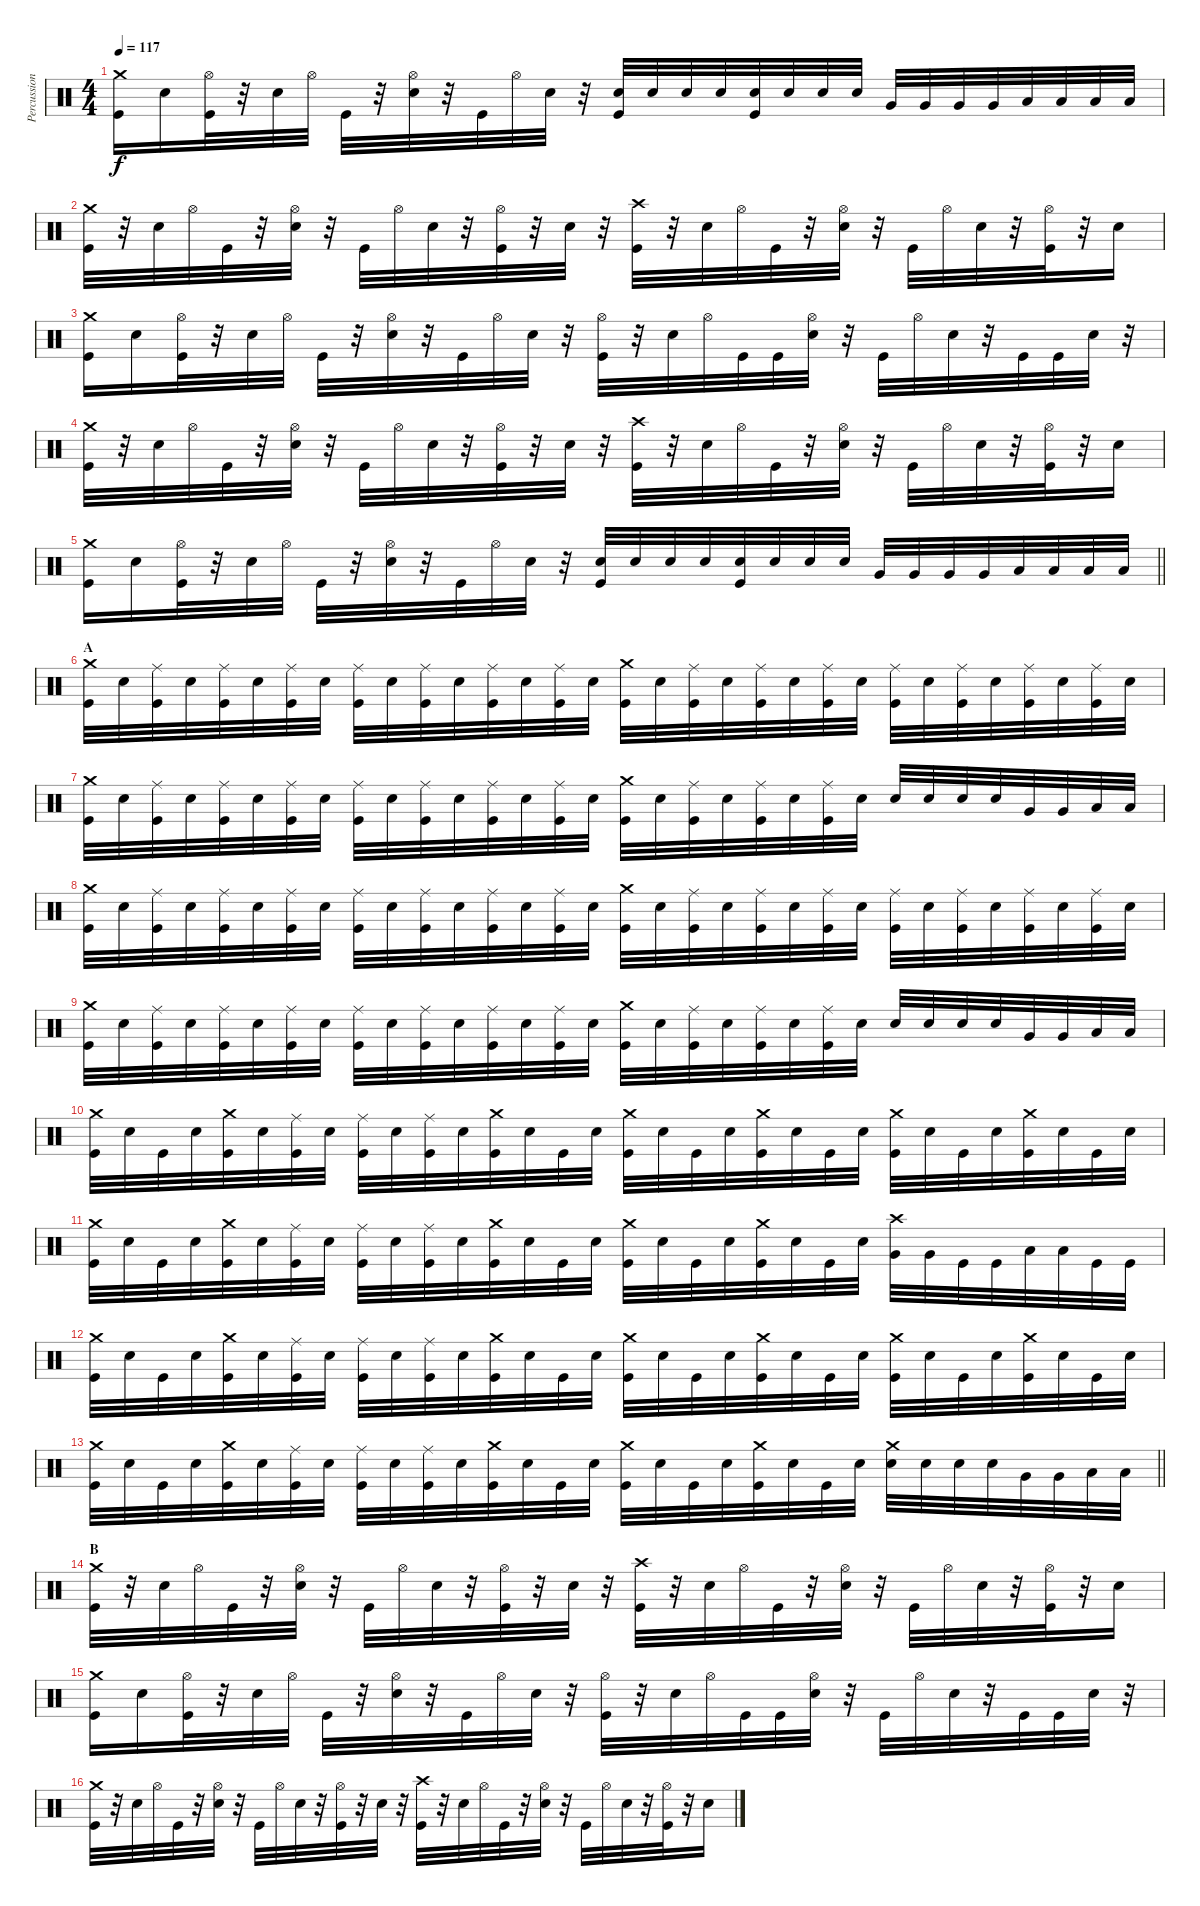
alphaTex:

\track ("Percussion" "Percussion") {instrument percussion}
\staff {score}
\articulation defaults
\ts (4 4)
\tempo 117
\clef neutral
\ks c
("Kick (hit)" "Crash medium (hit)").16{dy f} "Snare (hit) 2".16 ("Kick (hit)" "Hi-Hat (open)").32 r.32 "Snare (hit) 2".32 "Hi-Hat (open)".32 "Kick (hit)".32 r.32 ("Snare (hit) 2" "Hi-Hat (open)").32 r.32 "Kick (hit)".32 "Hi-Hat (open)".32 "Snare (hit) 2".32 r.32 ("Kick (hit)" "Snare (hit) 2").32 "Snare (hit) 2".32 "Snare (hit) 2".32 "Snare (hit) 2".32 ("Kick (hit)" "Snare (hit) 2").32 "Snare (hit) 2".32 "Snare (hit) 2".32 "Snare (hit) 2".32 "Very Low Tom (hit)".32 "Very Low Tom (hit)".32 "Very Low Tom (hit)".32 "Very Low Tom (hit)".32 "Low Floor Tom (hit)".32 "Low Floor Tom (hit)".32 "Low Floor Tom (hit)".32 "Low Floor Tom (hit)".32 |
("Kick (hit)" "Crash medium (hit)").32 r.32 "Snare (hit) 2".32 "Hi-Hat (open)".32 "Kick (hit)".32 r.32 ("Snare (hit) 2" "Hi-Hat (open)").32 r.32 "Kick (hit)".32 "Hi-Hat (open)".32 "Snare (hit) 2".32 r.32 ("Kick (hit)" "Hi-Hat (open)").32 r.32 "Snare (hit) 2".32 r.32 ("Kick (hit)" "Crash high (hit)").32 r.32 "Snare (hit) 2".32 "Hi-Hat (open)".32 "Kick (hit)".32 r.32 ("Snare (hit) 2" "Hi-Hat (open)").32 r.32 "Kick (hit)".32 "Hi-Hat (open)".32 "Snare (hit) 2".32 r.32 ("Kick (hit)" "Hi-Hat (open)").32 r.32 "Snare (hit) 2".16 |
("Kick (hit)" "Crash medium (hit)").16 "Snare (hit) 2".16 ("Kick (hit)" "Hi-Hat (open)").32 r.32 "Snare (hit) 2".32 "Hi-Hat (open)".32 "Kick (hit)".32 r.32 ("Snare (hit) 2" "Hi-Hat (open)").32 r.32 "Kick (hit)".32 "Hi-Hat (open)".32 "Snare (hit) 2".32 r.32 ("Kick (hit)" "Hi-Hat (open)").32 r.32 "Snare (hit) 2".32 "Hi-Hat (open)".32 "Kick (hit)".32 "Kick (hit)".32 ("Snare (hit) 2" "Hi-Hat (open)").32 r.32 "Kick (hit)".32 "Hi-Hat (open)".32 "Snare (hit) 2".32 r.32 "Kick (hit)".32 "Kick (hit)".32 "Snare (hit) 2".32 r.32 |
("Kick (hit)" "Crash medium (hit)").32 r.32 "Snare (hit) 2".32 "Hi-Hat (open)".32 "Kick (hit)".32 r.32 ("Snare (hit) 2" "Hi-Hat (open)").32 r.32 "Kick (hit)".32 "Hi-Hat (open)".32 "Snare (hit) 2".32 r.32 ("Kick (hit)" "Hi-Hat (open)").32 r.32 "Snare (hit) 2".32 r.32 ("Kick (hit)" "Crash high (hit)").32 r.32 "Snare (hit) 2".32 "Hi-Hat (open)".32 "Kick (hit)".32 r.32 ("Snare (hit) 2" "Hi-Hat (open)").32 r.32 "Kick (hit)".32 "Hi-Hat (open)".32 "Snare (hit) 2".32 r.32 ("Kick (hit)" "Hi-Hat (open)").32 r.32 "Snare (hit) 2".16 |
\barLineRight lightlight
("Kick (hit)" "Crash medium (hit)").16 "Snare (hit) 2".16 ("Kick (hit)" "Hi-Hat (open)").32 r.32 "Snare (hit) 2".32 "Hi-Hat (open)".32 "Kick (hit)".32 r.32 ("Snare (hit) 2" "Hi-Hat (open)").32 r.32 "Kick (hit)".32 "Hi-Hat (open)".32 "Snare (hit) 2".32 r.32 ("Kick (hit)" "Snare (hit) 2").32 "Snare (hit) 2".32 "Snare (hit) 2".32 "Snare (hit) 2".32 ("Kick (hit)" "Snare (hit) 2").32 "Snare (hit) 2".32 "Snare (hit) 2".32 "Snare (hit) 2".32 "Very Low Tom (hit)".32 "Very Low Tom (hit)".32 "Very Low Tom (hit)".32 "Very Low Tom (hit)".32 "Low Floor Tom (hit)".32 "Low Floor Tom (hit)".32 "Low Floor Tom (hit)".32 "Low Floor Tom (hit)".32 |
\section ("" "A")
("Kick (hit)" "Crash medium (hit)").32 "Snare (hit) 2".32 ("Kick (hit)" "Ride (middle)").32 "Snare (hit) 2".32 ("Kick (hit)" "Ride (middle)").32 "Snare (hit) 2".32 ("Kick (hit)" "Ride (middle)").32 "Snare (hit) 2".32 ("Kick (hit)" "Ride (middle)").32 "Snare (hit) 2".32 ("Kick (hit)" "Ride (middle)").32 "Snare (hit) 2".32 ("Kick (hit)" "Ride (middle)").32 "Snare (hit) 2".32 ("Kick (hit)" "Ride (middle)").32 "Snare (hit) 2".32 ("Kick (hit)" "Crash medium (hit)").32 "Snare (hit) 2".32 ("Kick (hit)" "Ride (middle)").32 "Snare (hit) 2".32 ("Kick (hit)" "Ride (middle)").32 "Snare (hit) 2".32 ("Kick (hit)" "Ride (middle)").32 "Snare (hit) 2".32 ("Kick (hit)" "Ride (middle)").32 "Snare (hit) 2".32 ("Kick (hit)" "Ride (middle)").32 "Snare (hit) 2".32 ("Kick (hit)" "Ride (middle)").32 "Snare (hit) 2".32 ("Kick (hit)" "Ride (middle)").32 "Snare (hit) 2".32 |
("Kick (hit)" "Crash medium (hit)").32 "Snare (hit) 2".32 ("Kick (hit)" "Ride (middle)").32 "Snare (hit) 2".32 ("Kick (hit)" "Ride (middle)").32 "Snare (hit) 2".32 ("Kick (hit)" "Ride (middle)").32 "Snare (hit) 2".32 ("Kick (hit)" "Ride (middle)").32 "Snare (hit) 2".32 ("Kick (hit)" "Ride (middle)").32 "Snare (hit) 2".32 ("Kick (hit)" "Ride (middle)").32 "Snare (hit) 2".32 ("Kick (hit)" "Ride (middle)").32 "Snare (hit) 2".32 ("Kick (hit)" "Crash medium (hit)").32 "Snare (hit) 2".32 ("Kick (hit)" "Ride (middle)").32 "Snare (hit) 2".32 ("Kick (hit)" "Ride (middle)").32 "Snare (hit) 2".32 ("Kick (hit)" "Ride (middle)").32 "Snare (hit) 2".32 "Snare (hit) 2".32 "Snare (hit) 2".32 "Snare (hit) 2".32 "Snare (hit) 2".32 "Very Low Tom (hit)".32 "Very Low Tom (hit)".32 "Low Floor Tom (hit)".32 "Low Floor Tom (hit)".32 |
("Kick (hit)" "Crash medium (hit)").32 "Snare (hit) 2".32 ("Kick (hit)" "Ride (middle)").32 "Snare (hit) 2".32 ("Kick (hit)" "Ride (middle)").32 "Snare (hit) 2".32 ("Kick (hit)" "Ride (middle)").32 "Snare (hit) 2".32 ("Kick (hit)" "Ride (middle)").32 "Snare (hit) 2".32 ("Kick (hit)" "Ride (middle)").32 "Snare (hit) 2".32 ("Kick (hit)" "Ride (middle)").32 "Snare (hit) 2".32 ("Kick (hit)" "Ride (middle)").32 "Snare (hit) 2".32 ("Kick (hit)" "Crash medium (hit)").32 "Snare (hit) 2".32 ("Kick (hit)" "Ride (middle)").32 "Snare (hit) 2".32 ("Kick (hit)" "Ride (middle)").32 "Snare (hit) 2".32 ("Kick (hit)" "Ride (middle)").32 "Snare (hit) 2".32 ("Kick (hit)" "Ride (middle)").32 "Snare (hit) 2".32 ("Kick (hit)" "Ride (middle)").32 "Snare (hit) 2".32 ("Kick (hit)" "Ride (middle)").32 "Snare (hit) 2".32 ("Kick (hit)" "Ride (middle)").32 "Snare (hit) 2".32 |
("Kick (hit)" "Crash medium (hit)").32 "Snare (hit) 2".32 ("Kick (hit)" "Ride (middle)").32 "Snare (hit) 2".32 ("Kick (hit)" "Ride (middle)").32 "Snare (hit) 2".32 ("Kick (hit)" "Ride (middle)").32 "Snare (hit) 2".32 ("Kick (hit)" "Ride (middle)").32 "Snare (hit) 2".32 ("Kick (hit)" "Ride (middle)").32 "Snare (hit) 2".32 ("Kick (hit)" "Ride (middle)").32 "Snare (hit) 2".32 ("Kick (hit)" "Ride (middle)").32 "Snare (hit) 2".32 ("Kick (hit)" "Crash medium (hit)").32 "Snare (hit) 2".32 ("Kick (hit)" "Ride (middle)").32 "Snare (hit) 2".32 ("Kick (hit)" "Ride (middle)").32 "Snare (hit) 2".32 ("Kick (hit)" "Ride (middle)").32 "Snare (hit) 2".32 "Snare (hit) 2".32 "Snare (hit) 2".32 "Snare (hit) 2".32 "Snare (hit) 2".32 "Very Low Tom (hit)".32 "Very Low Tom (hit)".32 "Low Floor Tom (hit)".32 "Low Floor Tom (hit)".32 |
("Kick (hit)" "Crash medium (hit)").32 "Snare (hit) 2".32 "Kick (hit)".32 "Snare (hit) 2".32 ("Kick (hit)" "Crash medium (hit)").32 "Snare (hit) 2".32 ("Kick (hit)" "Ride (middle)").32 "Snare (hit) 2".32 ("Kick (hit)" "Ride (middle)").32 "Snare (hit) 2".32 ("Kick (hit)" "Ride (middle)").32 "Snare (hit) 2".32 ("Kick (hit)" "Crash medium (hit)").32 "Snare (hit) 2".32 "Kick (hit)".32 "Snare (hit) 2".32 ("Kick (hit)" "Crash medium (hit)").32 "Snare (hit) 2".32 "Kick (hit)".32 "Snare (hit) 2".32 ("Kick (hit)" "Crash medium (hit)").32 "Snare (hit) 2".32 "Kick (hit)".32 "Snare (hit) 2".32 ("Kick (hit)" "Crash medium (hit)").32 "Snare (hit) 2".32 "Kick (hit)".32 "Snare (hit) 2".32 ("Kick (hit)" "Crash medium (hit)").32 "Snare (hit) 2".32 "Kick (hit)".32 "Snare (hit) 2".32 |
("Kick (hit)" "Crash medium (hit)").32 "Snare (hit) 2".32 "Kick (hit)".32 "Snare (hit) 2".32 ("Kick (hit)" "Crash medium (hit)").32 "Snare (hit) 2".32 ("Kick (hit)" "Ride (middle)").32 "Snare (hit) 2".32 ("Kick (hit)" "Ride (middle)").32 "Snare (hit) 2".32 ("Kick (hit)" "Ride (middle)").32 "Snare (hit) 2".32 ("Kick (hit)" "Crash medium (hit)").32 "Snare (hit) 2".32 "Kick (hit)".32 "Snare (hit) 2".32 ("Kick (hit)" "Crash medium (hit)").32 "Snare (hit) 2".32 "Kick (hit)".32 "Snare (hit) 2".32 ("Kick (hit)" "Crash medium (hit)").32 "Snare (hit) 2".32 "Kick (hit)".32 "Snare (hit) 2".32 ("Very Low Tom (hit)" "Crash high (hit)").32 "Very Low Tom (hit)".32 "Kick (hit)".32 "Kick (hit)".32 "Low Floor Tom (hit)".32 "Low Floor Tom (hit)".32 "Kick (hit)".32 "Kick (hit)".32 |
("Kick (hit)" "Crash medium (hit)").32 "Snare (hit) 2".32 "Kick (hit)".32 "Snare (hit) 2".32 ("Kick (hit)" "Crash medium (hit)").32 "Snare (hit) 2".32 ("Kick (hit)" "Ride (middle)").32 "Snare (hit) 2".32 ("Kick (hit)" "Ride (middle)").32 "Snare (hit) 2".32 ("Kick (hit)" "Ride (middle)").32 "Snare (hit) 2".32 ("Kick (hit)" "Crash medium (hit)").32 "Snare (hit) 2".32 "Kick (hit)".32 "Snare (hit) 2".32 ("Kick (hit)" "Crash medium (hit)").32 "Snare (hit) 2".32 "Kick (hit)".32 "Snare (hit) 2".32 ("Kick (hit)" "Crash medium (hit)").32 "Snare (hit) 2".32 "Kick (hit)".32 "Snare (hit) 2".32 ("Kick (hit)" "Crash medium (hit)").32 "Snare (hit) 2".32 "Kick (hit)".32 "Snare (hit) 2".32 ("Kick (hit)" "Crash medium (hit)").32 "Snare (hit) 2".32 "Kick (hit)".32 "Snare (hit) 2".32 |
\barLineRight lightlight
("Kick (hit)" "Crash medium (hit)").32 "Snare (hit) 2".32 "Kick (hit)".32 "Snare (hit) 2".32 ("Kick (hit)" "Crash medium (hit)").32 "Snare (hit) 2".32 ("Kick (hit)" "Ride (middle)").32 "Snare (hit) 2".32 ("Kick (hit)" "Ride (middle)").32 "Snare (hit) 2".32 ("Kick (hit)" "Ride (middle)").32 "Snare (hit) 2".32 ("Kick (hit)" "Crash medium (hit)").32 "Snare (hit) 2".32 "Kick (hit)".32 "Snare (hit) 2".32 ("Kick (hit)" "Crash medium (hit)").32 "Snare (hit) 2".32 "Kick (hit)".32 "Snare (hit) 2".32 ("Kick (hit)" "Crash medium (hit)").32 "Snare (hit) 2".32 "Kick (hit)".32 "Snare (hit) 2".32 ("Snare (hit) 2" "Crash medium (hit)").32 "Snare (hit) 2".32 "Snare (hit) 2".32 "Snare (hit) 2".32 "Very Low Tom (hit)".32 "Very Low Tom (hit)".32 "Low Floor Tom (hit)".32 "Low Floor Tom (hit)".32 |
\section ("" "B")
("Kick (hit)" "Crash medium (hit)").32 r.32 "Snare (hit) 2".32 "Hi-Hat (open)".32 "Kick (hit)".32 r.32 ("Snare (hit) 2" "Hi-Hat (open)").32 r.32 "Kick (hit)".32 "Hi-Hat (open)".32 "Snare (hit) 2".32 r.32 ("Kick (hit)" "Hi-Hat (open)").32 r.32 "Snare (hit) 2".32 r.32 ("Kick (hit)" "Crash high (hit)").32 r.32 "Snare (hit) 2".32 "Hi-Hat (open)".32 "Kick (hit)".32 r.32 ("Snare (hit) 2" "Hi-Hat (open)").32 r.32 "Kick (hit)".32 "Hi-Hat (open)".32 "Snare (hit) 2".32 r.32 ("Kick (hit)" "Hi-Hat (open)").32 r.32 "Snare (hit) 2".16 |
("Kick (hit)" "Crash medium (hit)").16 "Snare (hit) 2".16 ("Kick (hit)" "Hi-Hat (open)").32 r.32 "Snare (hit) 2".32 "Hi-Hat (open)".32 "Kick (hit)".32 r.32 ("Snare (hit) 2" "Hi-Hat (open)").32 r.32 "Kick (hit)".32 "Hi-Hat (open)".32 "Snare (hit) 2".32 r.32 ("Kick (hit)" "Hi-Hat (open)").32 r.32 "Snare (hit) 2".32 "Hi-Hat (open)".32 "Kick (hit)".32 "Kick (hit)".32 ("Snare (hit) 2" "Hi-Hat (open)").32 r.32 "Kick (hit)".32 "Hi-Hat (open)".32 "Snare (hit) 2".32 r.32 "Kick (hit)".32 "Kick (hit)".32 "Snare (hit) 2".32 r.32 |
("Kick (hit)" "Crash medium (hit)").32 r.32 "Snare (hit) 2".32 "Hi-Hat (open)".32 "Kick (hit)".32 r.32 ("Snare (hit) 2" "Hi-Hat (open)").32 r.32 "Kick (hit)".32 "Hi-Hat (open)".32 "Snare (hit) 2".32 r.32 ("Kick (hit)" "Hi-Hat (open)").32 r.32 "Snare (hit) 2".32 r.32 ("Kick (hit)" "Crash high (hit)").32 r.32 "Snare (hit) 2".32 "Hi-Hat (open)".32 "Kick (hit)".32 r.32 ("Snare (hit) 2" "Hi-Hat (open)").32 r.32 "Kick (hit)".32 "Hi-Hat (open)".32 "Snare (hit) 2".32 r.32 ("Kick (hit)" "Hi-Hat (open)").32 r.32 "Snare (hit) 2".16
